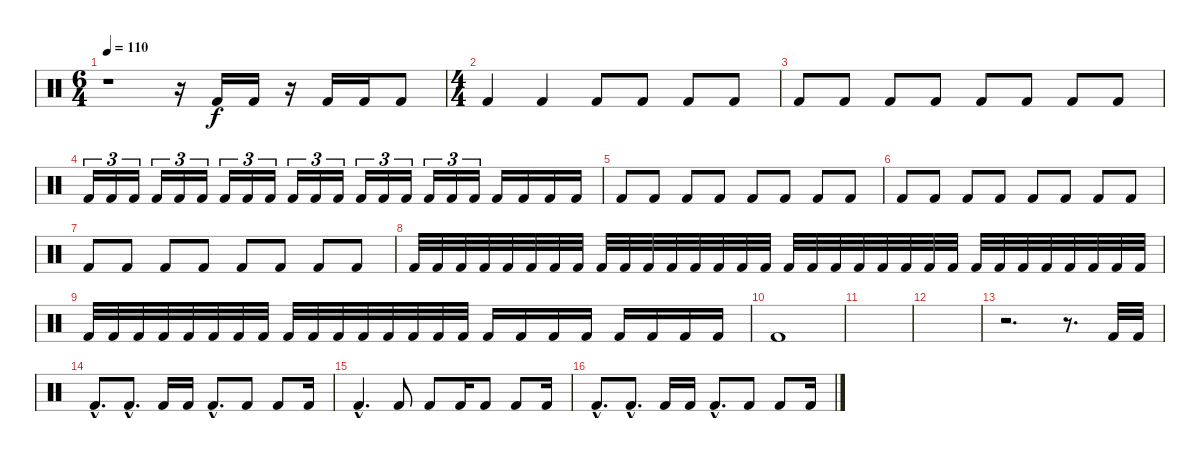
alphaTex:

\track "" {instrument percussion}
\staff {score}
\articulation defaults
\ts (6 4)
\tempo 110
\clef neutral
\ks c
r.1{dy f} r.16 "Kick (hit) 2".16 "Kick (hit) 2".16 r.16 "Kick (hit) 2".16 "Kick (hit) 2".16 "Kick (hit) 2".8 |
\ts (4 4)
"Kick (hit) 2".4 "Kick (hit) 2".4 "Kick (hit) 2".8 "Kick (hit) 2".8 "Kick (hit) 2".8 "Kick (hit) 2".8 |
"Kick (hit) 2".8 "Kick (hit) 2".8 "Kick (hit) 2".8 "Kick (hit) 2".8 "Kick (hit) 2".8 "Kick (hit) 2".8 "Kick (hit) 2".8 "Kick (hit) 2".8 |
"Kick (hit) 2".16{tu (3 2)} "Kick (hit) 2".16{tu (3 2)} "Kick (hit) 2".16{tu (3 2)} "Kick (hit) 2".16{tu (3 2)} "Kick (hit) 2".16{tu (3 2)} "Kick (hit) 2".16{tu (3 2)} "Kick (hit) 2".16{tu (3 2)} "Kick (hit) 2".16{tu (3 2)} "Kick (hit) 2".16{tu (3 2)} "Kick (hit) 2".16{tu (3 2)} "Kick (hit) 2".16{tu (3 2)} "Kick (hit) 2".16{tu (3 2)} "Kick (hit) 2".16{tu (3 2)} "Kick (hit) 2".16{tu (3 2)} "Kick (hit) 2".16{tu (3 2)} "Kick (hit) 2".16{tu (3 2)} "Kick (hit) 2".16{tu (3 2)} "Kick (hit) 2".16{tu (3 2)} "Kick (hit) 2".16 "Kick (hit) 2".16 "Kick (hit) 2".16 "Kick (hit) 2".16 |
"Kick (hit) 2".8 "Kick (hit) 2".8 "Kick (hit) 2".8 "Kick (hit) 2".8 "Kick (hit) 2".8 "Kick (hit) 2".8 "Kick (hit) 2".8 "Kick (hit) 2".8 |
"Kick (hit) 2".8 "Kick (hit) 2".8 "Kick (hit) 2".8 "Kick (hit) 2".8 "Kick (hit) 2".8 "Kick (hit) 2".8 "Kick (hit) 2".8 "Kick (hit) 2".8 |
"Kick (hit) 2".8 "Kick (hit) 2".8 "Kick (hit) 2".8 "Kick (hit) 2".8 "Kick (hit) 2".8 "Kick (hit) 2".8 "Kick (hit) 2".8 "Kick (hit) 2".8 |
"Kick (hit) 2".32 "Kick (hit) 2".32 "Kick (hit) 2".32 "Kick (hit) 2".32 "Kick (hit) 2".32 "Kick (hit) 2".32 "Kick (hit) 2".32 "Kick (hit) 2".32 "Kick (hit) 2".32 "Kick (hit) 2".32 "Kick (hit) 2".32 "Kick (hit) 2".32 "Kick (hit) 2".32 "Kick (hit) 2".32 "Kick (hit) 2".32 "Kick (hit) 2".32 "Kick (hit) 2".32 "Kick (hit) 2".32 "Kick (hit) 2".32 "Kick (hit) 2".32 "Kick (hit) 2".32 "Kick (hit) 2".32 "Kick (hit) 2".32 "Kick (hit) 2".32 "Kick (hit) 2".32 "Kick (hit) 2".32 "Kick (hit) 2".32 "Kick (hit) 2".32 "Kick (hit) 2".32 "Kick (hit) 2".32 "Kick (hit) 2".32 "Kick (hit) 2".32 |
"Kick (hit) 2".32 "Kick (hit) 2".32 "Kick (hit) 2".32 "Kick (hit) 2".32 "Kick (hit) 2".32 "Kick (hit) 2".32 "Kick (hit) 2".32 "Kick (hit) 2".32 "Kick (hit) 2".32 "Kick (hit) 2".32 "Kick (hit) 2".32 "Kick (hit) 2".32 "Kick (hit) 2".32 "Kick (hit) 2".32 "Kick (hit) 2".32 "Kick (hit) 2".32 "Kick (hit) 2".16 "Kick (hit) 2".16 "Kick (hit) 2".16 "Kick (hit) 2".16 "Kick (hit) 2".16 "Kick (hit) 2".16 "Kick (hit) 2".16 "Kick (hit) 2".16 |
"Kick (hit) 2".1 |
|
|
r.2{d} r.8{d} "Kick (hit) 2".32 "Kick (hit) 2".32 |
"Kick (hit) 2"{hac}.8{d} "Kick (hit) 2"{hac}.8{d} "Kick (hit) 2".16 "Kick (hit) 2".16 "Kick (hit) 2"{hac}.8{d} "Kick (hit) 2".8 "Kick (hit) 2".8 "Kick (hit) 2".16 |
"Kick (hit) 2"{hac}.4{d} "Kick (hit) 2".8 "Kick (hit) 2".8 "Kick (hit) 2".16 "Kick (hit) 2".8 "Kick (hit) 2".8 "Kick (hit) 2".16 |
"Kick (hit) 2"{hac}.8{d} "Kick (hit) 2"{hac}.8{d} "Kick (hit) 2".16 "Kick (hit) 2".16 "Kick (hit) 2"{hac}.8{d} "Kick (hit) 2".8 "Kick (hit) 2".8 "Kick (hit) 2".16
